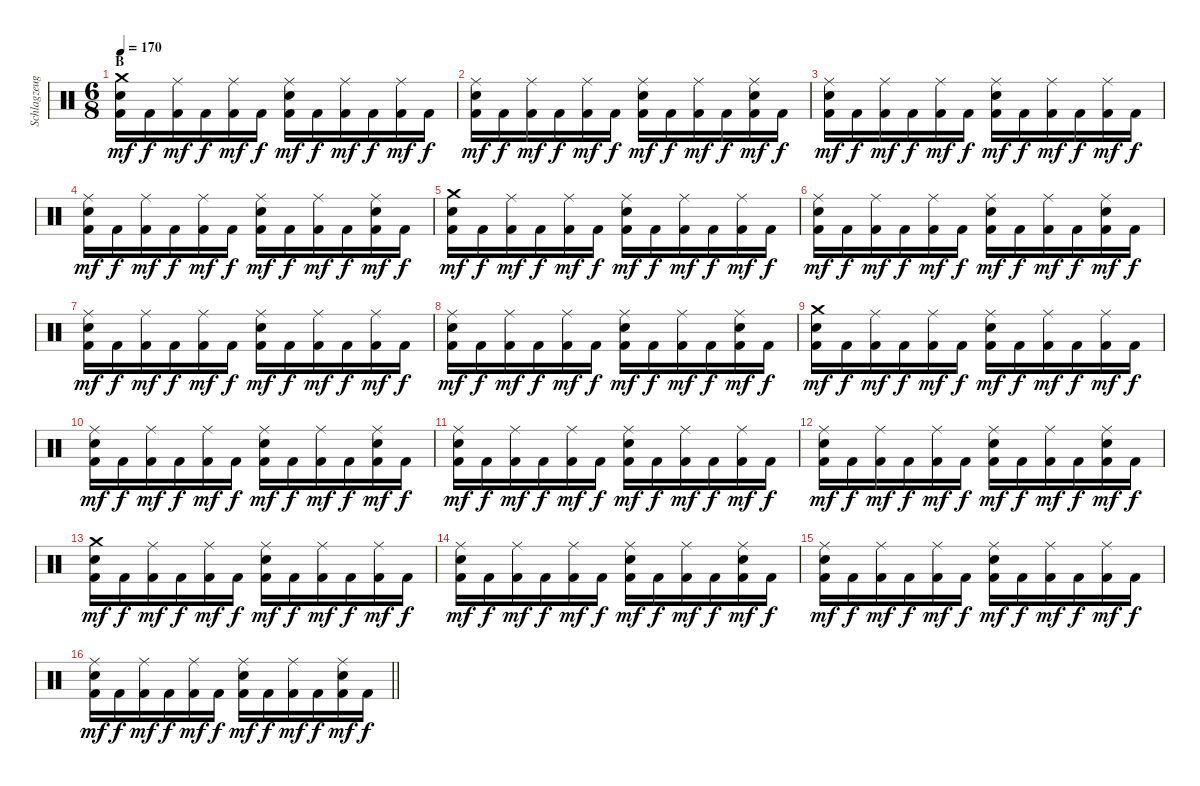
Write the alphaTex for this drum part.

\track ("Schlagzeug" "Schlagzeug") {instrument percussion}
\staff {score}
\articulation defaults
\ts (6 8)
\section ("" "B")
\tempo 170
\clef neutral
\ks c
("Crash medium (hit)" "Electric Snare (hit)" "Kick (hit) 2").16{dy mf} "Kick (hit) 2".16{dy f} ("Ride (middle)" "Kick (hit) 2").16{dy mf} "Kick (hit) 2".16{dy f} ("Ride (middle)" "Kick (hit) 2").16{dy mf} "Kick (hit) 2".16{dy f} ("Ride (middle)" "Electric Snare (hit)" "Kick (hit) 2").16{dy mf} "Kick (hit) 2".16{dy f} ("Ride (middle)" "Kick (hit) 2").16{dy mf} "Kick (hit) 2".16{dy f} ("Ride (middle)" "Kick (hit) 2").16{dy mf} "Kick (hit) 2".16{dy f} |
("Ride (middle)" "Electric Snare (hit)" "Kick (hit) 2").16{dy mf} "Kick (hit) 2".16{dy f} ("Ride (middle)" "Kick (hit) 2").16{dy mf} "Kick (hit) 2".16{dy f} ("Ride (middle)" "Kick (hit) 2").16{dy mf} "Kick (hit) 2".16{dy f} ("Ride (middle)" "Electric Snare (hit)" "Kick (hit) 2").16{dy mf} "Kick (hit) 2".16{dy f} ("Ride (middle)" "Kick (hit) 2").16{dy mf} "Kick (hit) 2".16{dy f} ("Ride (middle)" "Electric Snare (hit)" "Kick (hit) 2").16{dy mf} "Kick (hit) 2".16{dy f} |
("Ride (middle)" "Electric Snare (hit)" "Kick (hit) 2").16{dy mf} "Kick (hit) 2".16{dy f} ("Ride (middle)" "Kick (hit) 2").16{dy mf} "Kick (hit) 2".16{dy f} ("Ride (middle)" "Kick (hit) 2").16{dy mf} "Kick (hit) 2".16{dy f} ("Ride (middle)" "Electric Snare (hit)" "Kick (hit) 2").16{dy mf} "Kick (hit) 2".16{dy f} ("Ride (middle)" "Kick (hit) 2").16{dy mf} "Kick (hit) 2".16{dy f} ("Ride (middle)" "Kick (hit) 2").16{dy mf} "Kick (hit) 2".16{dy f} |
("Ride (middle)" "Electric Snare (hit)" "Kick (hit) 2").16{dy mf} "Kick (hit) 2".16{dy f} ("Ride (middle)" "Kick (hit) 2").16{dy mf} "Kick (hit) 2".16{dy f} ("Ride (middle)" "Kick (hit) 2").16{dy mf} "Kick (hit) 2".16{dy f} ("Ride (middle)" "Electric Snare (hit)" "Kick (hit) 2").16{dy mf} "Kick (hit) 2".16{dy f} ("Ride (middle)" "Kick (hit) 2").16{dy mf} "Kick (hit) 2".16{dy f} ("Ride (middle)" "Electric Snare (hit)" "Kick (hit) 2").16{dy mf} "Kick (hit) 2".16{dy f} |
("Crash medium (hit)" "Electric Snare (hit)" "Kick (hit) 2").16{dy mf} "Kick (hit) 2".16{dy f} ("Ride (middle)" "Kick (hit) 2").16{dy mf} "Kick (hit) 2".16{dy f} ("Ride (middle)" "Kick (hit) 2").16{dy mf} "Kick (hit) 2".16{dy f} ("Ride (middle)" "Electric Snare (hit)" "Kick (hit) 2").16{dy mf} "Kick (hit) 2".16{dy f} ("Ride (middle)" "Kick (hit) 2").16{dy mf} "Kick (hit) 2".16{dy f} ("Ride (middle)" "Kick (hit) 2").16{dy mf} "Kick (hit) 2".16{dy f} |
("Ride (middle)" "Electric Snare (hit)" "Kick (hit) 2").16{dy mf} "Kick (hit) 2".16{dy f} ("Ride (middle)" "Kick (hit) 2").16{dy mf} "Kick (hit) 2".16{dy f} ("Ride (middle)" "Kick (hit) 2").16{dy mf} "Kick (hit) 2".16{dy f} ("Ride (middle)" "Electric Snare (hit)" "Kick (hit) 2").16{dy mf} "Kick (hit) 2".16{dy f} ("Ride (middle)" "Kick (hit) 2").16{dy mf} "Kick (hit) 2".16{dy f} ("Ride (middle)" "Electric Snare (hit)" "Kick (hit) 2").16{dy mf} "Kick (hit) 2".16{dy f} |
("Ride (middle)" "Electric Snare (hit)" "Kick (hit) 2").16{dy mf} "Kick (hit) 2".16{dy f} ("Ride (middle)" "Kick (hit) 2").16{dy mf} "Kick (hit) 2".16{dy f} ("Ride (middle)" "Kick (hit) 2").16{dy mf} "Kick (hit) 2".16{dy f} ("Ride (middle)" "Electric Snare (hit)" "Kick (hit) 2").16{dy mf} "Kick (hit) 2".16{dy f} ("Ride (middle)" "Kick (hit) 2").16{dy mf} "Kick (hit) 2".16{dy f} ("Ride (middle)" "Kick (hit) 2").16{dy mf} "Kick (hit) 2".16{dy f} |
("Ride (middle)" "Electric Snare (hit)" "Kick (hit) 2").16{dy mf} "Kick (hit) 2".16{dy f} ("Ride (middle)" "Kick (hit) 2").16{dy mf} "Kick (hit) 2".16{dy f} ("Ride (middle)" "Kick (hit) 2").16{dy mf} "Kick (hit) 2".16{dy f} ("Ride (middle)" "Electric Snare (hit)" "Kick (hit) 2").16{dy mf} "Kick (hit) 2".16{dy f} ("Ride (middle)" "Kick (hit) 2").16{dy mf} "Kick (hit) 2".16{dy f} ("Ride (middle)" "Electric Snare (hit)" "Kick (hit) 2").16{dy mf} "Kick (hit) 2".16{dy f} |
("Crash medium (hit)" "Electric Snare (hit)" "Kick (hit) 2").16{dy mf} "Kick (hit) 2".16{dy f} ("Ride (middle)" "Kick (hit) 2").16{dy mf} "Kick (hit) 2".16{dy f} ("Ride (middle)" "Kick (hit) 2").16{dy mf} "Kick (hit) 2".16{dy f} ("Ride (middle)" "Electric Snare (hit)" "Kick (hit) 2").16{dy mf} "Kick (hit) 2".16{dy f} ("Ride (middle)" "Kick (hit) 2").16{dy mf} "Kick (hit) 2".16{dy f} ("Ride (middle)" "Kick (hit) 2").16{dy mf} "Kick (hit) 2".16{dy f} |
("Ride (middle)" "Electric Snare (hit)" "Kick (hit) 2").16{dy mf} "Kick (hit) 2".16{dy f} ("Ride (middle)" "Kick (hit) 2").16{dy mf} "Kick (hit) 2".16{dy f} ("Ride (middle)" "Kick (hit) 2").16{dy mf} "Kick (hit) 2".16{dy f} ("Ride (middle)" "Electric Snare (hit)" "Kick (hit) 2").16{dy mf} "Kick (hit) 2".16{dy f} ("Ride (middle)" "Kick (hit) 2").16{dy mf} "Kick (hit) 2".16{dy f} ("Ride (middle)" "Electric Snare (hit)" "Kick (hit) 2").16{dy mf} "Kick (hit) 2".16{dy f} |
("Ride (middle)" "Electric Snare (hit)" "Kick (hit) 2").16{dy mf} "Kick (hit) 2".16{dy f} ("Ride (middle)" "Kick (hit) 2").16{dy mf} "Kick (hit) 2".16{dy f} ("Ride (middle)" "Kick (hit) 2").16{dy mf} "Kick (hit) 2".16{dy f} ("Ride (middle)" "Electric Snare (hit)" "Kick (hit) 2").16{dy mf} "Kick (hit) 2".16{dy f} ("Ride (middle)" "Kick (hit) 2").16{dy mf} "Kick (hit) 2".16{dy f} ("Ride (middle)" "Kick (hit) 2").16{dy mf} "Kick (hit) 2".16{dy f} |
("Ride (middle)" "Electric Snare (hit)" "Kick (hit) 2").16{dy mf} "Kick (hit) 2".16{dy f} ("Ride (middle)" "Kick (hit) 2").16{dy mf} "Kick (hit) 2".16{dy f} ("Ride (middle)" "Kick (hit) 2").16{dy mf} "Kick (hit) 2".16{dy f} ("Ride (middle)" "Electric Snare (hit)" "Kick (hit) 2").16{dy mf} "Kick (hit) 2".16{dy f} ("Ride (middle)" "Kick (hit) 2").16{dy mf} "Kick (hit) 2".16{dy f} ("Ride (middle)" "Electric Snare (hit)" "Kick (hit) 2").16{dy mf} "Kick (hit) 2".16{dy f} |
("Crash medium (hit)" "Electric Snare (hit)" "Kick (hit) 2").16{dy mf} "Kick (hit) 2".16{dy f} ("Ride (middle)" "Kick (hit) 2").16{dy mf} "Kick (hit) 2".16{dy f} ("Ride (middle)" "Kick (hit) 2").16{dy mf} "Kick (hit) 2".16{dy f} ("Ride (middle)" "Electric Snare (hit)" "Kick (hit) 2").16{dy mf} "Kick (hit) 2".16{dy f} ("Ride (middle)" "Kick (hit) 2").16{dy mf} "Kick (hit) 2".16{dy f} ("Ride (middle)" "Kick (hit) 2").16{dy mf} "Kick (hit) 2".16{dy f} |
("Ride (middle)" "Electric Snare (hit)" "Kick (hit) 2").16{dy mf} "Kick (hit) 2".16{dy f} ("Ride (middle)" "Kick (hit) 2").16{dy mf} "Kick (hit) 2".16{dy f} ("Ride (middle)" "Kick (hit) 2").16{dy mf} "Kick (hit) 2".16{dy f} ("Ride (middle)" "Electric Snare (hit)" "Kick (hit) 2").16{dy mf} "Kick (hit) 2".16{dy f} ("Ride (middle)" "Kick (hit) 2").16{dy mf} "Kick (hit) 2".16{dy f} ("Ride (middle)" "Electric Snare (hit)" "Kick (hit) 2").16{dy mf} "Kick (hit) 2".16{dy f} |
("Ride (middle)" "Electric Snare (hit)" "Kick (hit) 2").16{dy mf} "Kick (hit) 2".16{dy f} ("Ride (middle)" "Kick (hit) 2").16{dy mf} "Kick (hit) 2".16{dy f} ("Ride (middle)" "Kick (hit) 2").16{dy mf} "Kick (hit) 2".16{dy f} ("Ride (middle)" "Electric Snare (hit)" "Kick (hit) 2").16{dy mf} "Kick (hit) 2".16{dy f} ("Ride (middle)" "Kick (hit) 2").16{dy mf} "Kick (hit) 2".16{dy f} ("Ride (middle)" "Kick (hit) 2").16{dy mf} "Kick (hit) 2".16{dy f} |
\barLineRight lightlight
("Ride (middle)" "Electric Snare (hit)" "Kick (hit) 2").16{dy mf} "Kick (hit) 2".16{dy f} ("Ride (middle)" "Kick (hit) 2").16{dy mf} "Kick (hit) 2".16{dy f} ("Ride (middle)" "Kick (hit) 2").16{dy mf} "Kick (hit) 2".16{dy f} ("Ride (middle)" "Electric Snare (hit)" "Kick (hit) 2").16{dy mf} "Kick (hit) 2".16{dy f} ("Ride (middle)" "Kick (hit) 2").16{dy mf} "Kick (hit) 2".16{dy f} ("Ride (middle)" "Electric Snare (hit)" "Kick (hit) 2").16{dy mf} "Kick (hit) 2".16{dy f}
